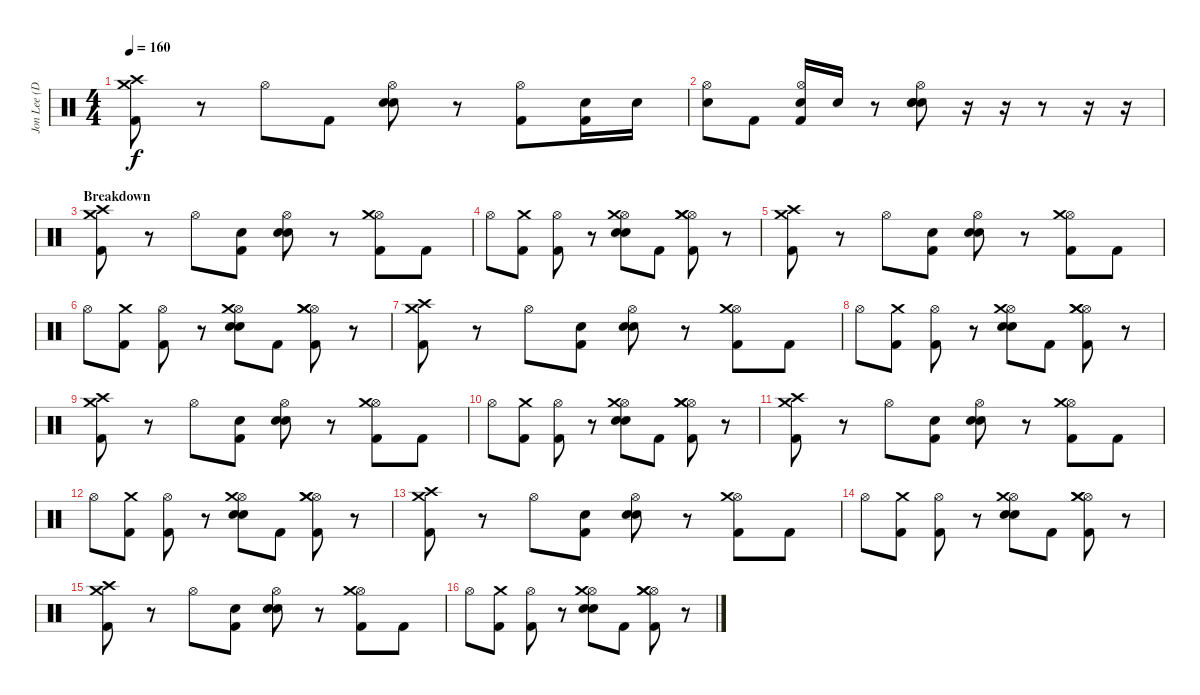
\track ("Jon Lee (Drums)" "Jon Lee (D") {instrument percussion}
\staff {score}
\articulation defaults
\ts (4 4)
\tempo 160
\clef neutral
\ks c
("Crash high (hit)" "Crash medium (hit)" "Kick (hit) 2").8{dy f} r.8 "Hi-Hat (open)".8 "Kick (hit) 2".8 ("Hi-Hat (open)" "Electric Snare (hit)" "Snare (hit) 2").8 r.8 ("Hi-Hat (open)" "Kick (hit) 2").8 ("Electric Snare (hit)" "Kick (hit) 2").16 "Electric Snare (hit)".16 |
("Hi-Hat (open)" "Electric Snare (hit)").8 "Kick (hit) 2".8 ("Hi-Hat (open)" "Electric Snare (hit)" "Kick (hit) 2").16 "Electric Snare (hit)".16 r.8 ("Hi-Hat (open)" "Electric Snare (hit)" "Electric Snare (hit)" "Snare (hit) 2").8 r.16 r.16 r.8 r.16 r.16 |
\section ("" "Breakdown")
("Crash high (hit)" "Crash medium (hit)" "Kick (hit) 2").8 r.8 "Hi-Hat (open)".8 ("Kick (hit) 2" "Electric Snare (hit)").8 ("Hi-Hat (open)" "Electric Snare (hit)" "Snare (hit) 2").8 r.8 ("Hi-Hat (open)" "Kick (hit) 2" "Crash medium (hit)").8 "Kick (hit) 2".8 |
"Hi-Hat (open)".8 ("Kick (hit) 2" "Crash medium (hit)").8 ("Hi-Hat (open)" "Kick (hit) 2").8 r.8 ("Hi-Hat (open)" "Electric Snare (hit)" "Snare (hit) 2" "Crash medium (hit)").8 "Kick (hit) 2".8 ("Hi-Hat (open)" "Crash medium (hit)" "Kick (hit) 2" "Crash medium (hit)").8 r.8 |
("Crash high (hit)" "Crash medium (hit)" "Kick (hit) 2").8 r.8 "Hi-Hat (open)".8 ("Kick (hit) 2" "Electric Snare (hit)").8 ("Hi-Hat (open)" "Electric Snare (hit)" "Snare (hit) 2").8 r.8 ("Hi-Hat (open)" "Kick (hit) 2" "Crash medium (hit)").8 "Kick (hit) 2".8 |
"Hi-Hat (open)".8 ("Kick (hit) 2" "Crash medium (hit)").8 ("Hi-Hat (open)" "Kick (hit) 2").8 r.8 ("Hi-Hat (open)" "Electric Snare (hit)" "Snare (hit) 2" "Crash medium (hit)").8 "Kick (hit) 2".8 ("Hi-Hat (open)" "Crash medium (hit)" "Kick (hit) 2" "Crash medium (hit)").8 r.8 |
("Crash high (hit)" "Crash medium (hit)" "Kick (hit) 2").8 r.8 "Hi-Hat (open)".8 ("Kick (hit) 2" "Electric Snare (hit)").8 ("Hi-Hat (open)" "Electric Snare (hit)" "Snare (hit) 2").8 r.8 ("Hi-Hat (open)" "Kick (hit) 2" "Crash medium (hit)").8 "Kick (hit) 2".8 |
"Hi-Hat (open)".8 ("Kick (hit) 2" "Crash medium (hit)").8 ("Hi-Hat (open)" "Kick (hit) 2").8 r.8 ("Hi-Hat (open)" "Electric Snare (hit)" "Snare (hit) 2" "Crash medium (hit)").8 "Kick (hit) 2".8 ("Hi-Hat (open)" "Crash medium (hit)" "Kick (hit) 2" "Crash medium (hit)").8 r.8 |
("Crash high (hit)" "Crash medium (hit)" "Kick (hit) 2").8 r.8 "Hi-Hat (open)".8 ("Kick (hit) 2" "Electric Snare (hit)").8 ("Hi-Hat (open)" "Electric Snare (hit)" "Snare (hit) 2").8 r.8 ("Hi-Hat (open)" "Kick (hit) 2" "Crash medium (hit)").8 "Kick (hit) 2".8 |
"Hi-Hat (open)".8 ("Kick (hit) 2" "Crash medium (hit)").8 ("Hi-Hat (open)" "Kick (hit) 2").8 r.8 ("Hi-Hat (open)" "Electric Snare (hit)" "Snare (hit) 2" "Crash medium (hit)").8 "Kick (hit) 2".8 ("Hi-Hat (open)" "Crash medium (hit)" "Kick (hit) 2" "Crash medium (hit)").8 r.8 |
("Crash high (hit)" "Crash medium (hit)" "Kick (hit) 2").8 r.8 "Hi-Hat (open)".8 ("Kick (hit) 2" "Electric Snare (hit)").8 ("Hi-Hat (open)" "Electric Snare (hit)" "Snare (hit) 2").8 r.8 ("Hi-Hat (open)" "Kick (hit) 2" "Crash medium (hit)").8 "Kick (hit) 2".8 |
"Hi-Hat (open)".8 ("Kick (hit) 2" "Crash medium (hit)").8 ("Hi-Hat (open)" "Kick (hit) 2").8 r.8 ("Hi-Hat (open)" "Electric Snare (hit)" "Snare (hit) 2" "Crash medium (hit)").8 "Kick (hit) 2".8 ("Hi-Hat (open)" "Crash medium (hit)" "Kick (hit) 2" "Crash medium (hit)").8 r.8 |
("Crash high (hit)" "Crash medium (hit)" "Kick (hit) 2").8 r.8 "Hi-Hat (open)".8 ("Kick (hit) 2" "Electric Snare (hit)").8 ("Hi-Hat (open)" "Electric Snare (hit)" "Snare (hit) 2").8 r.8 ("Hi-Hat (open)" "Kick (hit) 2" "Crash medium (hit)").8 "Kick (hit) 2".8 |
"Hi-Hat (open)".8 ("Kick (hit) 2" "Crash medium (hit)").8 ("Hi-Hat (open)" "Kick (hit) 2").8 r.8 ("Hi-Hat (open)" "Electric Snare (hit)" "Snare (hit) 2" "Crash medium (hit)").8 "Kick (hit) 2".8 ("Hi-Hat (open)" "Crash medium (hit)" "Kick (hit) 2" "Crash medium (hit)").8 r.8 |
("Crash high (hit)" "Crash medium (hit)" "Kick (hit) 2").8 r.8 "Hi-Hat (open)".8 ("Kick (hit) 2" "Electric Snare (hit)").8 ("Hi-Hat (open)" "Electric Snare (hit)" "Snare (hit) 2").8 r.8 ("Hi-Hat (open)" "Kick (hit) 2" "Crash medium (hit)").8 "Kick (hit) 2".8 |
"Hi-Hat (open)".8 ("Kick (hit) 2" "Crash medium (hit)").8 ("Hi-Hat (open)" "Kick (hit) 2").8 r.8 ("Hi-Hat (open)" "Electric Snare (hit)" "Snare (hit) 2" "Crash medium (hit)").8 "Kick (hit) 2".8 ("Hi-Hat (open)" "Crash medium (hit)" "Kick (hit) 2" "Crash medium (hit)").8 r.8
